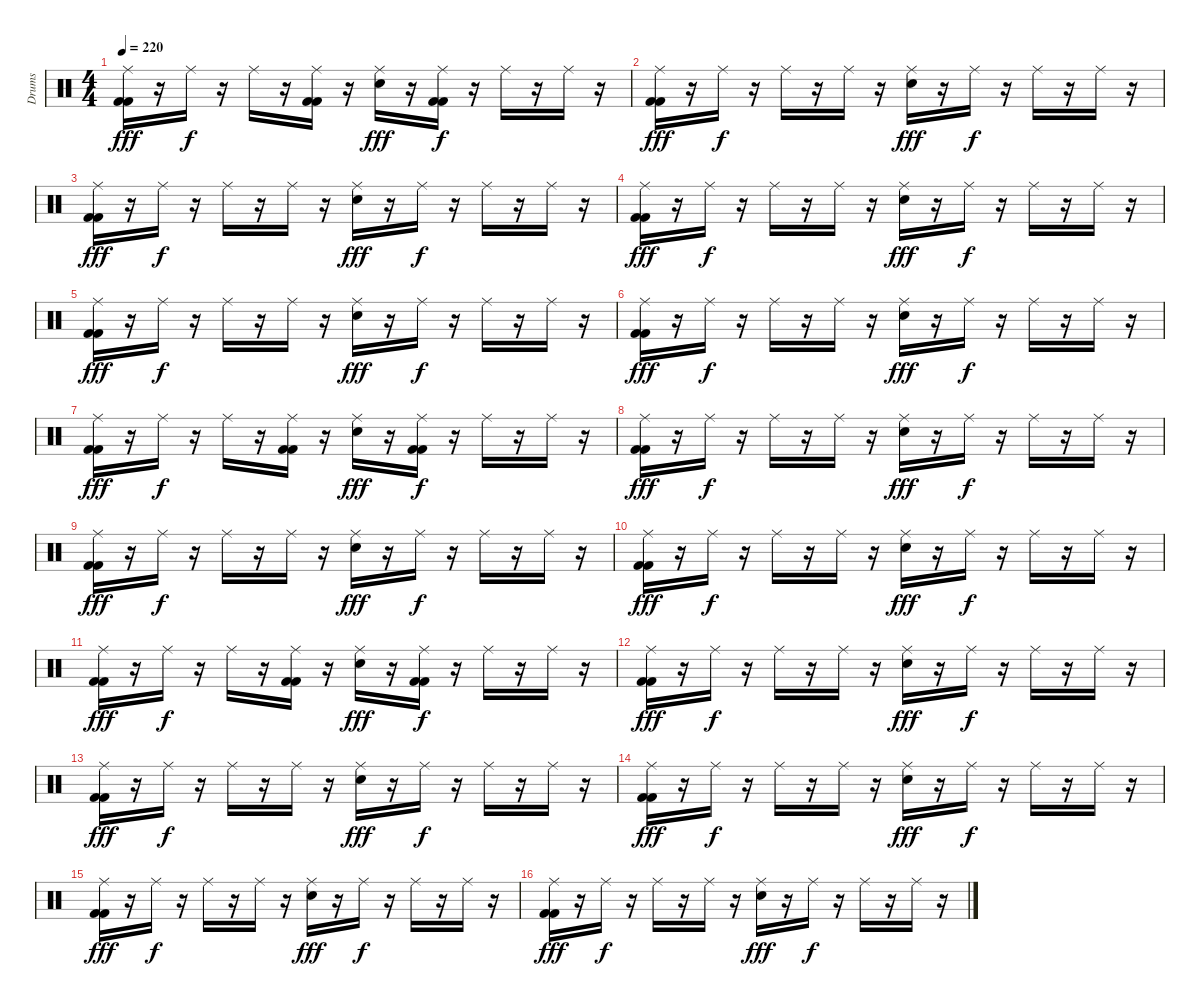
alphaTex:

\track ("Drums" "Drums") {instrument percussion}
\staff {score}
\articulation defaults
\ts (4 4)
\tempo 220
\clef neutral
\ks c
("Ride (middle)" "Kick (hit) 2" "Kick (hit) 2").16{dy fff} r.16 "Ride (middle)".16{dy f} r.16 "Ride (middle)".16 r.16 ("Ride (middle)" "Kick (hit) 2" "Kick (hit) 2").16 r.16 ("Ride (middle)" "Electric Snare (hit)").16{dy fff} r.16 ("Ride (middle)" "Kick (hit) 2" "Kick (hit) 2").16{dy f} r.16 "Ride (middle)".16 r.16 "Ride (middle)".16 r.16 |
("Ride (middle)" "Kick (hit) 2" "Kick (hit) 2").16{dy fff} r.16 "Ride (middle)".16{dy f} r.16 "Ride (middle)".16 r.16 "Ride (middle)".16 r.16 ("Ride (middle)" "Electric Snare (hit)").16{dy fff} r.16 "Ride (middle)".16{dy f} r.16 "Ride (middle)".16 r.16 "Ride (middle)".16 r.16 |
("Ride (middle)" "Kick (hit) 2" "Kick (hit) 2").16{dy fff} r.16 "Ride (middle)".16{dy f} r.16 "Ride (middle)".16 r.16 "Ride (middle)".16 r.16 ("Ride (middle)" "Electric Snare (hit)").16{dy fff} r.16 "Ride (middle)".16{dy f} r.16 "Ride (middle)".16 r.16 "Ride (middle)".16 r.16 |
("Ride (middle)" "Kick (hit) 2" "Kick (hit) 2").16{dy fff} r.16 "Ride (middle)".16{dy f} r.16 "Ride (middle)".16 r.16 "Ride (middle)".16 r.16 ("Ride (middle)" "Electric Snare (hit)").16{dy fff} r.16 "Ride (middle)".16{dy f} r.16 "Ride (middle)".16 r.16 "Ride (middle)".16 r.16 |
("Ride (middle)" "Kick (hit) 2" "Kick (hit) 2").16{dy fff} r.16 "Ride (middle)".16{dy f} r.16 "Ride (middle)".16 r.16 "Ride (middle)".16 r.16 ("Ride (middle)" "Electric Snare (hit)").16{dy fff} r.16 "Ride (middle)".16{dy f} r.16 "Ride (middle)".16 r.16 "Ride (middle)".16 r.16 |
("Ride (middle)" "Kick (hit) 2" "Kick (hit) 2").16{dy fff} r.16 "Ride (middle)".16{dy f} r.16 "Ride (middle)".16 r.16 "Ride (middle)".16 r.16 ("Ride (middle)" "Electric Snare (hit)").16{dy fff} r.16 "Ride (middle)".16{dy f} r.16 "Ride (middle)".16 r.16 "Ride (middle)".16 r.16 |
("Ride (middle)" "Kick (hit) 2" "Kick (hit) 2").16{dy fff} r.16 "Ride (middle)".16{dy f} r.16 "Ride (middle)".16 r.16 ("Ride (middle)" "Kick (hit) 2" "Kick (hit) 2").16 r.16 ("Ride (middle)" "Electric Snare (hit)").16{dy fff} r.16 ("Ride (middle)" "Kick (hit) 2" "Kick (hit) 2").16{dy f} r.16 "Ride (middle)".16 r.16 "Ride (middle)".16 r.16 |
("Ride (middle)" "Kick (hit) 2" "Kick (hit) 2").16{dy fff} r.16 "Ride (middle)".16{dy f} r.16 "Ride (middle)".16 r.16 "Ride (middle)".16 r.16 ("Ride (middle)" "Electric Snare (hit)").16{dy fff} r.16 "Ride (middle)".16{dy f} r.16 "Ride (middle)".16 r.16 "Ride (middle)".16 r.16 |
("Ride (middle)" "Kick (hit) 2" "Kick (hit) 2").16{dy fff} r.16 "Ride (middle)".16{dy f} r.16 "Ride (middle)".16 r.16 "Ride (middle)".16 r.16 ("Ride (middle)" "Electric Snare (hit)").16{dy fff} r.16 "Ride (middle)".16{dy f} r.16 "Ride (middle)".16 r.16 "Ride (middle)".16 r.16 |
("Ride (middle)" "Kick (hit) 2" "Kick (hit) 2").16{dy fff} r.16 "Ride (middle)".16{dy f} r.16 "Ride (middle)".16 r.16 "Ride (middle)".16 r.16 ("Ride (middle)" "Electric Snare (hit)").16{dy fff} r.16 "Ride (middle)".16{dy f} r.16 "Ride (middle)".16 r.16 "Ride (middle)".16 r.16 |
("Ride (middle)" "Kick (hit) 2" "Kick (hit) 2").16{dy fff} r.16 "Ride (middle)".16{dy f} r.16 "Ride (middle)".16 r.16 ("Ride (middle)" "Kick (hit) 2" "Kick (hit) 2").16 r.16 ("Ride (middle)" "Electric Snare (hit)").16{dy fff} r.16 ("Ride (middle)" "Kick (hit) 2" "Kick (hit) 2").16{dy f} r.16 "Ride (middle)".16 r.16 "Ride (middle)".16 r.16 |
("Ride (middle)" "Kick (hit) 2" "Kick (hit) 2").16{dy fff} r.16 "Ride (middle)".16{dy f} r.16 "Ride (middle)".16 r.16 "Ride (middle)".16 r.16 ("Ride (middle)" "Electric Snare (hit)").16{dy fff} r.16 "Ride (middle)".16{dy f} r.16 "Ride (middle)".16 r.16 "Ride (middle)".16 r.16 |
("Ride (middle)" "Kick (hit) 2" "Kick (hit) 2").16{dy fff} r.16 "Ride (middle)".16{dy f} r.16 "Ride (middle)".16 r.16 "Ride (middle)".16 r.16 ("Ride (middle)" "Electric Snare (hit)").16{dy fff} r.16 "Ride (middle)".16{dy f} r.16 "Ride (middle)".16 r.16 "Ride (middle)".16 r.16 |
("Ride (middle)" "Kick (hit) 2" "Kick (hit) 2").16{dy fff} r.16 "Ride (middle)".16{dy f} r.16 "Ride (middle)".16 r.16 "Ride (middle)".16 r.16 ("Ride (middle)" "Electric Snare (hit)").16{dy fff} r.16 "Ride (middle)".16{dy f} r.16 "Ride (middle)".16 r.16 "Ride (middle)".16 r.16 |
("Ride (middle)" "Kick (hit) 2" "Kick (hit) 2").16{dy fff} r.16 "Ride (middle)".16{dy f} r.16 "Ride (middle)".16 r.16 "Ride (middle)".16 r.16 ("Ride (middle)" "Electric Snare (hit)").16{dy fff} r.16 "Ride (middle)".16{dy f} r.16 "Ride (middle)".16 r.16 "Ride (middle)".16 r.16 |
("Ride (middle)" "Kick (hit) 2" "Kick (hit) 2").16{dy fff} r.16 "Ride (middle)".16{dy f} r.16 "Ride (middle)".16 r.16 "Ride (middle)".16 r.16 ("Ride (middle)" "Electric Snare (hit)").16{dy fff} r.16 "Ride (middle)".16{dy f} r.16 "Ride (middle)".16 r.16 "Ride (middle)".16 r.16
